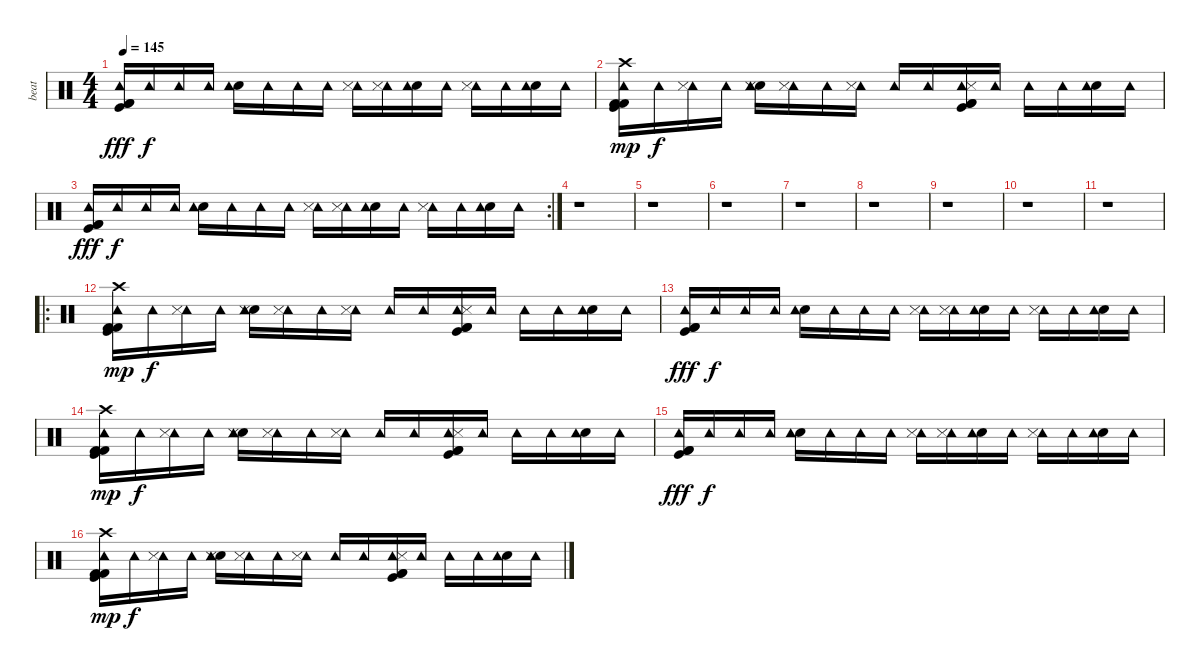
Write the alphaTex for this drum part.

\track ("beat" "beat") {instrument percussion}
\staff {score}
\articulation defaults
\ts (4 4)
\tempo 145
\clef neutral
\ks c
("Kick (hit)" "Kick (hit) 2" "Kick (hit) 2" "Tambourine (hit)").16{dy fff} "Tambourine (hit)".16{dy f} "Tambourine (hit)".16 "Tambourine (hit)".16 ("Electric Snare (hit)" "Tambourine (hit)").16 "Tambourine (hit)".16 "Tambourine (hit)".16 "Tambourine (hit)".16 ("Tambourine (hit)" "Snare (side stick) 3").16 ("Tambourine (hit)" "Snare (side stick) 3").16 ("Electric Snare (hit)" "Tambourine (hit)").16 "Tambourine (hit)".16 ("Tambourine (hit)" "Snare (side stick) 3").16 "Tambourine (hit)".16 ("Electric Snare (hit)" "Tambourine (hit)").16 "Tambourine (hit)".16 |
("Kick (hit)" "Kick (hit) 2" "Kick (hit) 2" "Tambourine (hit)" "Crash high (hit)").16{dy mp} "Tambourine (hit)".16{dy f} ("Tambourine (hit)" "Snare (side stick) 3").16 "Tambourine (hit)".16 ("Electric Snare (hit)" "Tambourine (hit)" "Snare (side stick) 3").16 ("Tambourine (hit)" "Snare (side stick) 3").16 "Tambourine (hit)".16 ("Tambourine (hit)" "Snare (side stick) 3").16 "Tambourine (hit)".16 "Tambourine (hit)".16 ("Kick (hit)" "Kick (hit) 2" "Kick (hit) 2" "Tambourine (hit)" "Snare (side stick) 3").16 "Tambourine (hit)".16 "Tambourine (hit)".16 "Tambourine (hit)".16 ("Electric Snare (hit)" "Tambourine (hit)").16 "Tambourine (hit)".16 |
\rc 2
("Kick (hit)" "Kick (hit) 2" "Kick (hit) 2" "Tambourine (hit)").16{dy fff} "Tambourine (hit)".16{dy f} "Tambourine (hit)".16 "Tambourine (hit)".16 ("Electric Snare (hit)" "Tambourine (hit)").16 "Tambourine (hit)".16 "Tambourine (hit)".16 "Tambourine (hit)".16 ("Tambourine (hit)" "Snare (side stick) 3").16 ("Tambourine (hit)" "Snare (side stick) 3").16 ("Electric Snare (hit)" "Tambourine (hit)").16 "Tambourine (hit)".16 ("Tambourine (hit)" "Snare (side stick) 3").16 "Tambourine (hit)".16 ("Electric Snare (hit)" "Tambourine (hit)").16 "Tambourine (hit)".16 |
r.1 |
r.1 |
r.1 |
r.1 |
r.1 |
r.1 |
r.1 |
r.1 |
\ro
("Kick (hit)" "Kick (hit) 2" "Kick (hit) 2" "Tambourine (hit)" "Crash high (hit)").16{dy mp} "Tambourine (hit)".16{dy f} ("Tambourine (hit)" "Snare (side stick) 3").16 "Tambourine (hit)".16 ("Electric Snare (hit)" "Tambourine (hit)" "Snare (side stick) 3").16 ("Tambourine (hit)" "Snare (side stick) 3").16 "Tambourine (hit)".16 ("Tambourine (hit)" "Snare (side stick) 3").16 "Tambourine (hit)".16 "Tambourine (hit)".16 ("Kick (hit)" "Kick (hit) 2" "Kick (hit) 2" "Tambourine (hit)" "Snare (side stick) 3").16 "Tambourine (hit)".16 "Tambourine (hit)".16 "Tambourine (hit)".16 ("Electric Snare (hit)" "Tambourine (hit)").16 "Tambourine (hit)".16 |
("Kick (hit)" "Kick (hit) 2" "Kick (hit) 2" "Tambourine (hit)").16{dy fff} "Tambourine (hit)".16{dy f} "Tambourine (hit)".16 "Tambourine (hit)".16 ("Electric Snare (hit)" "Tambourine (hit)").16 "Tambourine (hit)".16 "Tambourine (hit)".16 "Tambourine (hit)".16 ("Tambourine (hit)" "Snare (side stick) 3").16 ("Tambourine (hit)" "Snare (side stick) 3").16 ("Electric Snare (hit)" "Tambourine (hit)").16 "Tambourine (hit)".16 ("Tambourine (hit)" "Snare (side stick) 3").16 "Tambourine (hit)".16 ("Electric Snare (hit)" "Tambourine (hit)").16 "Tambourine (hit)".16 |
("Kick (hit)" "Kick (hit) 2" "Kick (hit) 2" "Tambourine (hit)" "Crash high (hit)").16{dy mp} "Tambourine (hit)".16{dy f} ("Tambourine (hit)" "Snare (side stick) 3").16 "Tambourine (hit)".16 ("Electric Snare (hit)" "Tambourine (hit)" "Snare (side stick) 3").16 ("Tambourine (hit)" "Snare (side stick) 3").16 "Tambourine (hit)".16 ("Tambourine (hit)" "Snare (side stick) 3").16 "Tambourine (hit)".16 "Tambourine (hit)".16 ("Kick (hit)" "Kick (hit) 2" "Kick (hit) 2" "Tambourine (hit)" "Snare (side stick) 3").16 "Tambourine (hit)".16 "Tambourine (hit)".16 "Tambourine (hit)".16 ("Electric Snare (hit)" "Tambourine (hit)").16 "Tambourine (hit)".16 |
("Kick (hit)" "Kick (hit) 2" "Kick (hit) 2" "Tambourine (hit)").16{dy fff} "Tambourine (hit)".16{dy f} "Tambourine (hit)".16 "Tambourine (hit)".16 ("Electric Snare (hit)" "Tambourine (hit)").16 "Tambourine (hit)".16 "Tambourine (hit)".16 "Tambourine (hit)".16 ("Tambourine (hit)" "Snare (side stick) 3").16 ("Tambourine (hit)" "Snare (side stick) 3").16 ("Electric Snare (hit)" "Tambourine (hit)").16 "Tambourine (hit)".16 ("Tambourine (hit)" "Snare (side stick) 3").16 "Tambourine (hit)".16 ("Electric Snare (hit)" "Tambourine (hit)").16 "Tambourine (hit)".16 |
("Kick (hit)" "Kick (hit) 2" "Kick (hit) 2" "Tambourine (hit)" "Crash high (hit)").16{dy mp} "Tambourine (hit)".16{dy f} ("Tambourine (hit)" "Snare (side stick) 3").16 "Tambourine (hit)".16 ("Electric Snare (hit)" "Tambourine (hit)" "Snare (side stick) 3").16 ("Tambourine (hit)" "Snare (side stick) 3").16 "Tambourine (hit)".16 ("Tambourine (hit)" "Snare (side stick) 3").16 "Tambourine (hit)".16 "Tambourine (hit)".16 ("Kick (hit)" "Kick (hit) 2" "Kick (hit) 2" "Tambourine (hit)" "Snare (side stick) 3").16 "Tambourine (hit)".16 "Tambourine (hit)".16 "Tambourine (hit)".16 ("Electric Snare (hit)" "Tambourine (hit)").16 "Tambourine (hit)".16
